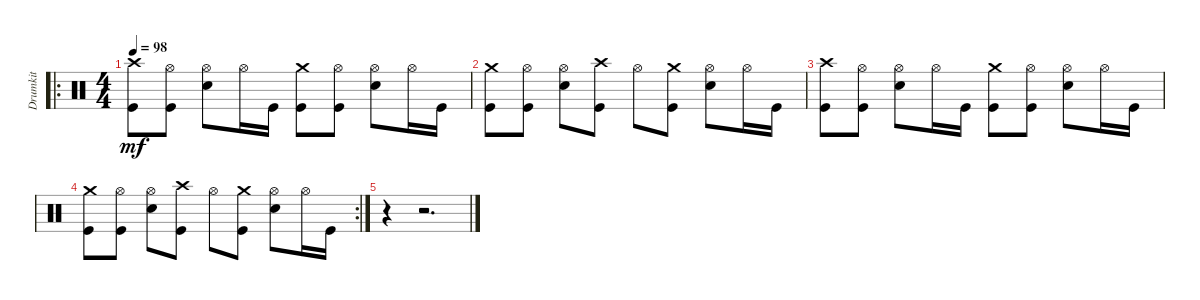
\track ("Drumkit" "Drumkit") {instrument percussion}
\staff {score}
\articulation defaults
\ro
\ts (4 4)
\tempo 98
\clef neutral
\ks c
("Kick (hit)" "Crash high (hit)").8{dy mf} ("Kick (hit)" "Hi-Hat (open)").8 ("Snare (hit) 2" "Hi-Hat (open)").8 "Hi-Hat (open)".16 "Kick (hit)".16 ("Kick (hit)" "Crash medium (hit)").8 ("Kick (hit)" "Hi-Hat (open)").8 ("Snare (hit) 2" "Hi-Hat (open)").8 "Hi-Hat (open)".16 "Kick (hit)".16 |
("Kick (hit)" "Crash medium (hit)").8 ("Kick (hit)" "Hi-Hat (open)").8 ("Hi-Hat (open)" "Snare (hit) 2").8 ("Kick (hit)" "Crash high (hit)").8 "Hi-Hat (open)".8 ("Kick (hit)" "Crash medium (hit)").8 ("Snare (hit) 2" "Hi-Hat (open)").8 "Hi-Hat (open)".16 "Kick (hit)".16 |
("Kick (hit)" "Crash high (hit)").8 ("Kick (hit)" "Hi-Hat (open)").8 ("Snare (hit) 2" "Hi-Hat (open)").8 "Hi-Hat (open)".16 "Kick (hit)".16 ("Kick (hit)" "Crash medium (hit)").8 ("Kick (hit)" "Hi-Hat (open)").8 ("Snare (hit) 2" "Hi-Hat (open)").8 "Hi-Hat (open)".16 "Kick (hit)".16 |
\rc 2
("Kick (hit)" "Crash medium (hit)").8 ("Kick (hit)" "Hi-Hat (open)").8 ("Hi-Hat (open)" "Snare (hit) 2").8 ("Kick (hit)" "Crash high (hit)").8 "Hi-Hat (open)".8 ("Kick (hit)" "Crash medium (hit)").8 ("Snare (hit) 2" "Hi-Hat (open)").8 "Hi-Hat (open)".16 "Kick (hit)".16 |
r.4 r.2{d}
